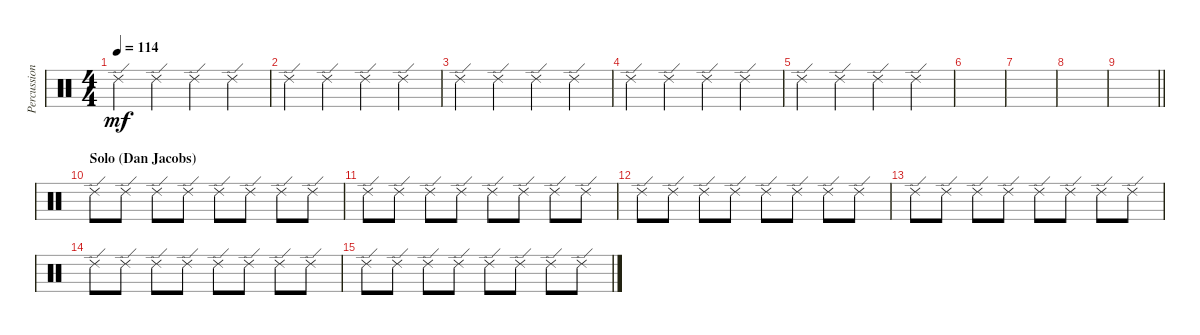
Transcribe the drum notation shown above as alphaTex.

\track ("Percussion (Brandon Saller)" "Percussion") {instrument percussion}
\staff {score}
\articulation defaults
\ts (4 4)
\tempo 114
\clef neutral
\ks c "Ride (edge) 2".4{dy mf} "Ride (edge) 2".4 "Ride (edge) 2".4 "Ride (edge) 2".4
|
"Ride (edge) 2".4 "Ride (edge) 2".4 "Ride (edge) 2".4 "Ride (edge) 2".4 |
"Ride (edge) 2".4 "Ride (edge) 2".4 "Ride (edge) 2".4 "Ride (edge) 2".4 |
"Ride (edge) 2".4 "Ride (edge) 2".4 "Ride (edge) 2".4 "Ride (edge) 2".4 |
"Ride (edge) 2".4 "Ride (edge) 2".4 "Ride (edge) 2".4 "Ride (edge) 2".4 |
|
|
|
\barLineRight lightlight
|
\section ("" "Solo (Dan Jacobs)")
"Ride (edge) 2".8 "Ride (edge) 2".8 "Ride (edge) 2".8 "Ride (edge) 2".8 "Ride (edge) 2".8 "Ride (edge) 2".8 "Ride (edge) 2".8 "Ride (edge) 2".8 |
"Ride (edge) 2".8 "Ride (edge) 2".8 "Ride (edge) 2".8 "Ride (edge) 2".8 "Ride (edge) 2".8 "Ride (edge) 2".8 "Ride (edge) 2".8 "Ride (edge) 2".8 |
"Ride (edge) 2".8 "Ride (edge) 2".8 "Ride (edge) 2".8 "Ride (edge) 2".8 "Ride (edge) 2".8 "Ride (edge) 2".8 "Ride (edge) 2".8 "Ride (edge) 2".8 |
"Ride (edge) 2".8 "Ride (edge) 2".8 "Ride (edge) 2".8 "Ride (edge) 2".8 "Ride (edge) 2".8 "Ride (edge) 2".8 "Ride (edge) 2".8 "Ride (edge) 2".8 |
"Ride (edge) 2".8 "Ride (edge) 2".8 "Ride (edge) 2".8 "Ride (edge) 2".8 "Ride (edge) 2".8 "Ride (edge) 2".8 "Ride (edge) 2".8 "Ride (edge) 2".8 |
"Ride (edge) 2".8 "Ride (edge) 2".8 "Ride (edge) 2".8 "Ride (edge) 2".8 "Ride (edge) 2".8 "Ride (edge) 2".8 "Ride (edge) 2".8 "Ride (edge) 2".8
